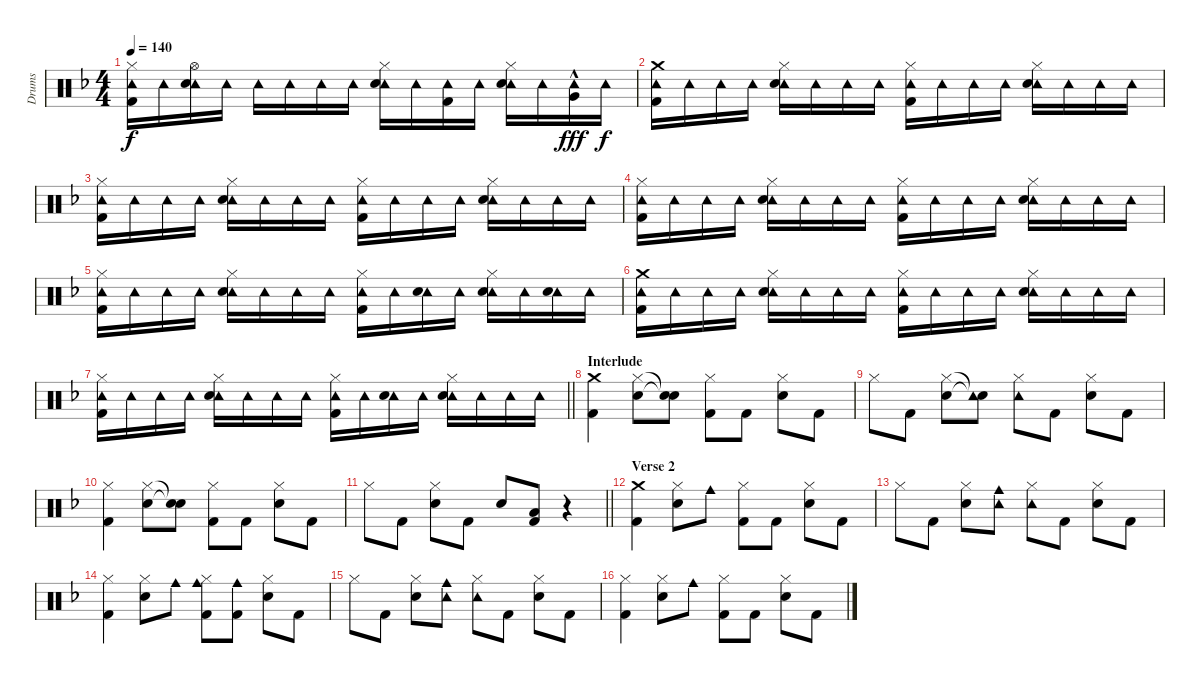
\track ("Drums" "Drums") {instrument percussion}
\staff {score}
\articulation defaults
\ts (4 4)
\tempo 140
\clef neutral
\ks f
("Hi-Hat (closed)" "Tambourine (hit)" "Kick (hit) 2").16{dy f} "Tambourine (hit)".16 ("Hi-Hat (open)" "Tambourine (hit)" "Electric Snare (hit)").16 "Tambourine (hit)".16 "Tambourine (hit)".16 "Tambourine (hit)".16 "Tambourine (hit)".16 "Tambourine (hit)".16 ("Hi-Hat (closed)" "Tambourine (hit)" "Electric Snare (hit)").16 "Tambourine (hit)".16 ("Tambourine (hit)" "Kick (hit) 2").16 "Tambourine (hit)".16 ("Hi-Hat (closed)" "Tambourine (hit)" "Electric Snare (hit)").16 "Tambourine (hit)".16 ("Tambourine (hit)" "Very Low Tom (hit)"{hac}).16{dy fff} "Tambourine (hit)".16{dy f} |
("Crash medium (hit)" "Tambourine (hit)" "Kick (hit) 2").16 "Tambourine (hit)".16 "Tambourine (hit)".16 "Tambourine (hit)".16 ("Hi-Hat (closed)" "Tambourine (hit)" "Electric Snare (hit)").16 "Tambourine (hit)".16 "Tambourine (hit)".16 "Tambourine (hit)".16 ("Hi-Hat (closed)" "Tambourine (hit)" "Kick (hit) 2").16 "Tambourine (hit)".16 "Tambourine (hit)".16 "Tambourine (hit)".16 ("Hi-Hat (closed)" "Tambourine (hit)" "Electric Snare (hit)").16 "Tambourine (hit)".16 "Tambourine (hit)".16 "Tambourine (hit)".16 |
("Hi-Hat (closed)" "Tambourine (hit)" "Kick (hit) 2").16 "Tambourine (hit)".16 "Tambourine (hit)".16 "Tambourine (hit)".16 ("Hi-Hat (closed)" "Tambourine (hit)" "Electric Snare (hit)").16 "Tambourine (hit)".16 "Tambourine (hit)".16 "Tambourine (hit)".16 ("Hi-Hat (closed)" "Tambourine (hit)" "Kick (hit) 2").16 "Tambourine (hit)".16 "Tambourine (hit)".16 "Tambourine (hit)".16 ("Hi-Hat (closed)" "Tambourine (hit)" "Electric Snare (hit)").16 "Tambourine (hit)".16 "Tambourine (hit)".16 "Tambourine (hit)".16 |
("Hi-Hat (closed)" "Tambourine (hit)" "Kick (hit) 2").16 "Tambourine (hit)".16 "Tambourine (hit)".16 "Tambourine (hit)".16 ("Hi-Hat (closed)" "Tambourine (hit)" "Electric Snare (hit)").16 "Tambourine (hit)".16 "Tambourine (hit)".16 "Tambourine (hit)".16 ("Hi-Hat (closed)" "Tambourine (hit)" "Kick (hit) 2").16 "Tambourine (hit)".16 "Tambourine (hit)".16 "Tambourine (hit)".16 ("Hi-Hat (closed)" "Tambourine (hit)" "Electric Snare (hit)").16 "Tambourine (hit)".16 "Tambourine (hit)".16 "Tambourine (hit)".16 |
("Hi-Hat (closed)" "Tambourine (hit)" "Kick (hit) 2").16 "Tambourine (hit)".16 "Tambourine (hit)".16 "Tambourine (hit)".16 ("Hi-Hat (closed)" "Tambourine (hit)" "Electric Snare (hit)").16 "Tambourine (hit)".16 "Tambourine (hit)".16 "Tambourine (hit)".16 ("Hi-Hat (closed)" "Tambourine (hit)" "Kick (hit) 2").16 "Tambourine (hit)".16 ("Tambourine (hit)" "Electric Snare (hit)").16 "Tambourine (hit)".16 ("Hi-Hat (closed)" "Tambourine (hit)" "Electric Snare (hit)").16 "Tambourine (hit)".16 ("Tambourine (hit)" "Electric Snare (hit)").16 "Tambourine (hit)".16 |
("Crash medium (hit)" "Tambourine (hit)" "Kick (hit) 2").16 "Tambourine (hit)".16 "Tambourine (hit)".16 "Tambourine (hit)".16 ("Hi-Hat (closed)" "Tambourine (hit)" "Electric Snare (hit)").16 "Tambourine (hit)".16 "Tambourine (hit)".16 "Tambourine (hit)".16 ("Hi-Hat (closed)" "Tambourine (hit)" "Kick (hit) 2").16 "Tambourine (hit)".16 "Tambourine (hit)".16 "Tambourine (hit)".16 ("Hi-Hat (closed)" "Tambourine (hit)" "Electric Snare (hit)").16 "Tambourine (hit)".16 "Tambourine (hit)".16 "Tambourine (hit)".16 |
\barLineRight lightlight
("Hi-Hat (closed)" "Tambourine (hit)" "Kick (hit) 2").16 "Tambourine (hit)".16 "Tambourine (hit)".16 "Tambourine (hit)".16 ("Hi-Hat (closed)" "Tambourine (hit)" "Electric Snare (hit)").16 "Tambourine (hit)".16 "Tambourine (hit)".16 "Tambourine (hit)".16 ("Hi-Hat (closed)" "Tambourine (hit)" "Kick (hit) 2").16 "Tambourine (hit)".16 ("Tambourine (hit)" "Electric Snare (hit)").16 "Tambourine (hit)".16 ("Hi-Hat (closed)" "Tambourine (hit)" "Electric Snare (hit)").16 "Tambourine (hit)".16 "Tambourine (hit)".16 "Tambourine (hit)".16 |
\section ("" "Interlude")
("Crash medium (hit)" "Kick (hit) 2").4 ("Hi-Hat (closed)" "Electric Snare (hit)").8 ("Snare (hit)"{t} "Snare (hit)"{t}).8 ("Hi-Hat (closed)" "Kick (hit) 2").8 "Kick (hit) 2".8 ("Hi-Hat (closed)" "Electric Snare (hit)").8 "Kick (hit) 2".8 |
"Hi-Hat (closed)".8 "Kick (hit) 2".8 ("Hi-Hat (closed)" "Electric Snare (hit)").8 ("Snare (hit)"{t} "Tambourine (hit)"{t}).8 ("Hi-Hat (closed)" "Tambourine (hit)").8 "Kick (hit) 2".8 ("Hi-Hat (closed)" "Electric Snare (hit)").8 "Kick (hit) 2".8 |
("Hi-Hat (closed)" "Kick (hit) 2").4 ("Hi-Hat (closed)" "Electric Snare (hit)").8 ("Snare (hit)"{t} "Snare (hit)"{t}).8 ("Hi-Hat (closed)" "Kick (hit) 2").8 "Kick (hit) 2".8 ("Hi-Hat (closed)" "Electric Snare (hit)").8 "Kick (hit) 2".8 |
\barLineRight lightlight "Hi-Hat (closed)".8 "Kick (hit) 2".8
("Hi-Hat (closed)" "Electric Snare (hit)").8 "Kick (hit) 2".8 "Electric Snare (hit)".8 ("Low Floor Tom (hit)" "Kick (hit) 2").8 r.4 |
\section ("" "Verse 2")
("Crash medium (hit)" "Kick (hit) 2").4 ("Hi-Hat (closed)" "Electric Snare (hit)").8 "Cowbell medium (hit)".8 ("Hi-Hat (closed)" "Kick (hit) 2").8 "Kick (hit) 2".8 ("Hi-Hat (closed)" "Electric Snare (hit)").8 "Kick (hit) 2".8 |
"Hi-Hat (closed)".8 "Kick (hit) 2".8 ("Hi-Hat (closed)" "Electric Snare (hit)").8 ("Tambourine (hit)" "Cowbell medium (hit)").8 ("Hi-Hat (closed)" "Tambourine (hit)").8 "Kick (hit) 2".8 ("Hi-Hat (closed)" "Electric Snare (hit)").8 "Kick (hit) 2".8 |
("Hi-Hat (closed)" "Kick (hit) 2").4 ("Hi-Hat (closed)" "Electric Snare (hit)").8 "Cowbell medium (hit)".8 ("Hi-Hat (closed)" "Cowbell medium (hit)" "Kick (hit) 2").8 ("Cowbell medium (hit)" "Kick (hit) 2").8 ("Hi-Hat (closed)" "Electric Snare (hit)").8 "Kick (hit) 2".8 |
"Hi-Hat (closed)".8 "Kick (hit) 2".8 ("Hi-Hat (closed)" "Electric Snare (hit)").8 ("Tambourine (hit)" "Cowbell medium (hit)").8 ("Hi-Hat (closed)" "Tambourine (hit)").8 "Kick (hit) 2".8 ("Hi-Hat (closed)" "Electric Snare (hit)").8 "Kick (hit) 2".8 |
("Hi-Hat (closed)" "Kick (hit) 2").4 ("Hi-Hat (closed)" "Electric Snare (hit)").8 "Cowbell medium (hit)".8 ("Hi-Hat (closed)" "Kick (hit) 2").8 "Kick (hit) 2".8 ("Hi-Hat (closed)" "Electric Snare (hit)").8 "Kick (hit) 2".8
